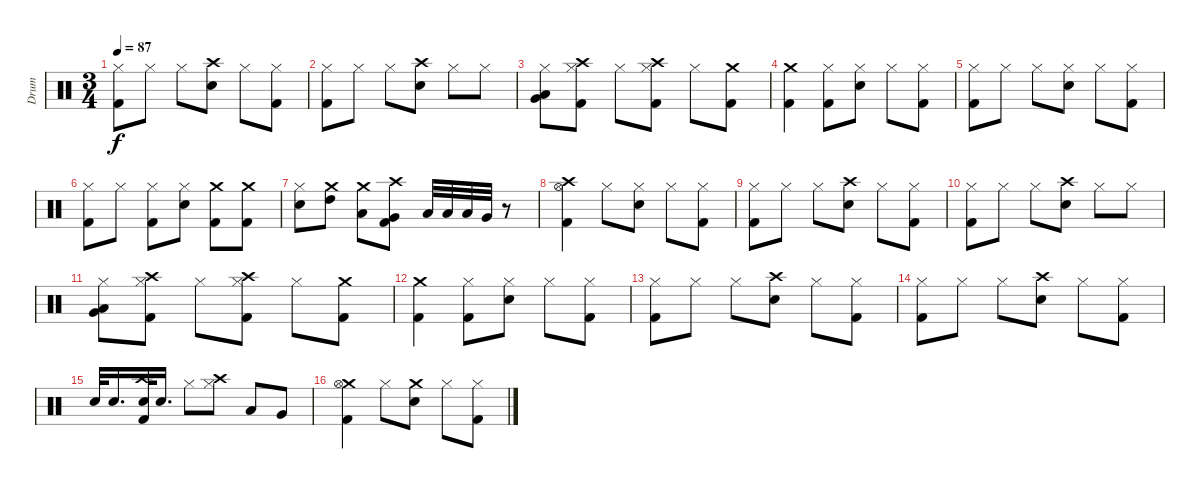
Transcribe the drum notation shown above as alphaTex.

\track ("Drum" "Drum") {instrument percussion}
\staff {score}
\articulation defaults
\ts (3 4)
\tempo 87
\clef neutral
\ks c
("Hi-Hat (closed)" "Kick (hit) 2").8{dy f} "Hi-Hat (closed)".8 "Hi-Hat (closed)".8 ("Crash high (hit)" "Electric Snare (hit)").8 "Hi-Hat (closed)".8 ("Hi-Hat (closed)" "Kick (hit) 2").8 |
("Hi-Hat (closed)" "Kick (hit) 2").8 "Hi-Hat (closed)".8 "Hi-Hat (closed)".8 ("Crash high (hit)" "Electric Snare (hit)").8 "Hi-Hat (closed)".8 "Hi-Hat (closed)".8 |
("Hi-Hat (closed)" "Very Low Tom (hit)" "Low Floor Tom (hit)").8 ("Crash high (hit)" "Hi-Hat (closed)" "Kick (hit) 2").8 "Hi-Hat (closed)".8 ("Crash high (hit)" "Hi-Hat (closed)" "Kick (hit) 2").8 "Hi-Hat (closed)".8 ("Crash medium (hit)" "Kick (hit) 2").8 |
("Crash medium (hit)" "Kick (hit) 2").4 ("Hi-Hat (closed)" "Kick (hit) 2").8 ("Hi-Hat (closed)" "Electric Snare (hit)").8 "Hi-Hat (closed)".8 ("Hi-Hat (closed)" "Kick (hit) 2").8 |
("Hi-Hat (closed)" "Kick (hit) 2").8 "Hi-Hat (closed)".8 "Hi-Hat (closed)".8 ("Hi-Hat (closed)" "Electric Snare (hit)").8 "Hi-Hat (closed)".8 ("Hi-Hat (closed)" "Kick (hit) 2").8 |
("Hi-Hat (closed)" "Kick (hit) 2").8 "Hi-Hat (closed)".8 ("Hi-Hat (closed)" "Kick (hit) 2").8 ("Hi-Hat (closed)" "Electric Snare (hit)").8 ("Crash medium (hit)" "Kick (hit) 2").8 ("Crash medium (hit)" "Kick (hit) 2").8 |
("Hi-Hat (closed)" "Electric Snare (hit)").8 ("Crash medium (hit)" "High Tom (hit)").8 ("Crash medium (hit)" "Low Tom (hit)").8 ("Crash high (hit)" "Very Low Tom (hit)" "Kick (hit) 2").8 "Low Tom (hit)".32 "Low Tom (hit)".32 "Low Tom (hit)".32 "Very Low Tom (hit)".32 r.8 |
("Crash high (hit)" "Hi-Hat (open)" "Kick (hit) 2").4 "Hi-Hat (closed)".8 ("Hi-Hat (closed)" "Electric Snare (hit)").8 "Hi-Hat (closed)".8 ("Hi-Hat (closed)" "Kick (hit) 2").8 |
("Hi-Hat (closed)" "Kick (hit) 2").8 "Hi-Hat (closed)".8 "Hi-Hat (closed)".8 ("Crash high (hit)" "Electric Snare (hit)").8 "Hi-Hat (closed)".8 ("Hi-Hat (closed)" "Kick (hit) 2").8 |
("Hi-Hat (closed)" "Kick (hit) 2").8 "Hi-Hat (closed)".8 "Hi-Hat (closed)".8 ("Crash high (hit)" "Electric Snare (hit)").8 "Hi-Hat (closed)".8 "Hi-Hat (closed)".8 |
("Hi-Hat (closed)" "Very Low Tom (hit)" "Low Floor Tom (hit)").8 ("Crash high (hit)" "Hi-Hat (closed)" "Kick (hit) 2").8 "Hi-Hat (closed)".8 ("Crash high (hit)" "Hi-Hat (closed)" "Kick (hit) 2").8 "Hi-Hat (closed)".8 ("Crash medium (hit)" "Kick (hit) 2").8 |
("Crash medium (hit)" "Kick (hit) 2").4 ("Hi-Hat (closed)" "Kick (hit) 2").8 ("Hi-Hat (closed)" "Electric Snare (hit)").8 "Hi-Hat (closed)".8 ("Hi-Hat (closed)" "Kick (hit) 2").8 |
("Hi-Hat (closed)" "Kick (hit) 2").8 "Hi-Hat (closed)".8 "Hi-Hat (closed)".8 ("Crash high (hit)" "Electric Snare (hit)").8 "Hi-Hat (closed)".8 ("Hi-Hat (closed)" "Kick (hit) 2").8 |
("Hi-Hat (closed)" "Kick (hit) 2").8 "Hi-Hat (closed)".8 "Hi-Hat (closed)".8 ("Crash high (hit)" "Electric Snare (hit)").8 "Hi-Hat (closed)".8 ("Hi-Hat (closed)" "Kick (hit) 2").8 |
"Electric Snare (hit)".32 "Electric Snare (hit)".16{d} ("Crash high (hit)" "Electric Snare (hit)" "Kick (hit) 2").32 "Electric Snare (hit)".16{d} "Hi-Hat (closed)".8 ("Crash high (hit)" "Hi-Hat (closed)").8 "Low Tom (hit)".8 "Very Low Tom (hit)".8 |
("Crash medium (hit)" "Hi-Hat (open)" "Kick (hit) 2").4 "Hi-Hat (closed)".8 ("Crash medium (hit)" "Electric Snare (hit)").8 "Hi-Hat (closed)".8 ("Hi-Hat (closed)" "Kick (hit) 2").8
